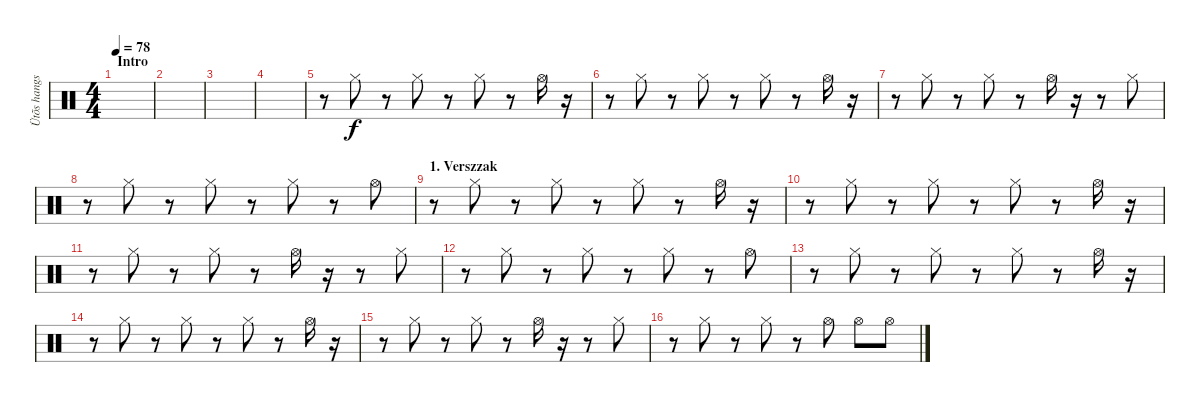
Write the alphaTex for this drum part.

\track ("Ütõs hangszer" "Ütõs hangs") {instrument percussion}
\staff {score}
\articulation defaults
\ts (4 4)
\section ("" "Intro")
\tempo 78
\clef neutral
\ks c
|
|
|
|
r.8 "Hi-Hat (closed)".8 r.8 "Hi-Hat (closed)".8 r.8 "Hi-Hat (closed)".8 r.8 "Hi-Hat (open)".16 r.16 |
r.8 "Hi-Hat (closed)".8 r.8 "Hi-Hat (closed)".8 r.8 "Hi-Hat (closed)".8 r.8 "Hi-Hat (open)".16 r.16 |
r.8 "Hi-Hat (closed)".8 r.8 "Hi-Hat (closed)".8 r.8 "Hi-Hat (open)".16 r.16 r.8 "Hi-Hat (closed)".8 |
r.8 "Hi-Hat (closed)".8 r.8 "Hi-Hat (closed)".8 r.8 "Hi-Hat (closed)".8 r.8 "Hi-Hat (open)".8 |
\section ("" "1. Verszzak")
r.8 "Hi-Hat (closed)".8 r.8 "Hi-Hat (closed)".8 r.8 "Hi-Hat (closed)".8 r.8 "Hi-Hat (open)".16 r.16 |
r.8 "Hi-Hat (closed)".8 r.8 "Hi-Hat (closed)".8 r.8 "Hi-Hat (closed)".8 r.8 "Hi-Hat (open)".16 r.16 |
r.8 "Hi-Hat (closed)".8 r.8 "Hi-Hat (closed)".8 r.8 "Hi-Hat (open)".16 r.16 r.8 "Hi-Hat (closed)".8 |
r.8 "Hi-Hat (closed)".8 r.8 "Hi-Hat (closed)".8 r.8 "Hi-Hat (closed)".8 r.8 "Hi-Hat (open)".8 |
r.8 "Hi-Hat (closed)".8 r.8 "Hi-Hat (closed)".8 r.8 "Hi-Hat (closed)".8 r.8 "Hi-Hat (open)".16 r.16 |
r.8 "Hi-Hat (closed)".8 r.8 "Hi-Hat (closed)".8 r.8 "Hi-Hat (closed)".8 r.8 "Hi-Hat (open)".16 r.16 |
r.8 "Hi-Hat (closed)".8 r.8 "Hi-Hat (closed)".8 r.8 "Hi-Hat (open)".16 r.16 r.8 "Hi-Hat (closed)".8 |
r.8 "Hi-Hat (closed)".8 r.8 "Hi-Hat (closed)".8 r.8 "Hi-Hat (open)".8 "Hi-Hat (open)".8 "Hi-Hat (open)".8
